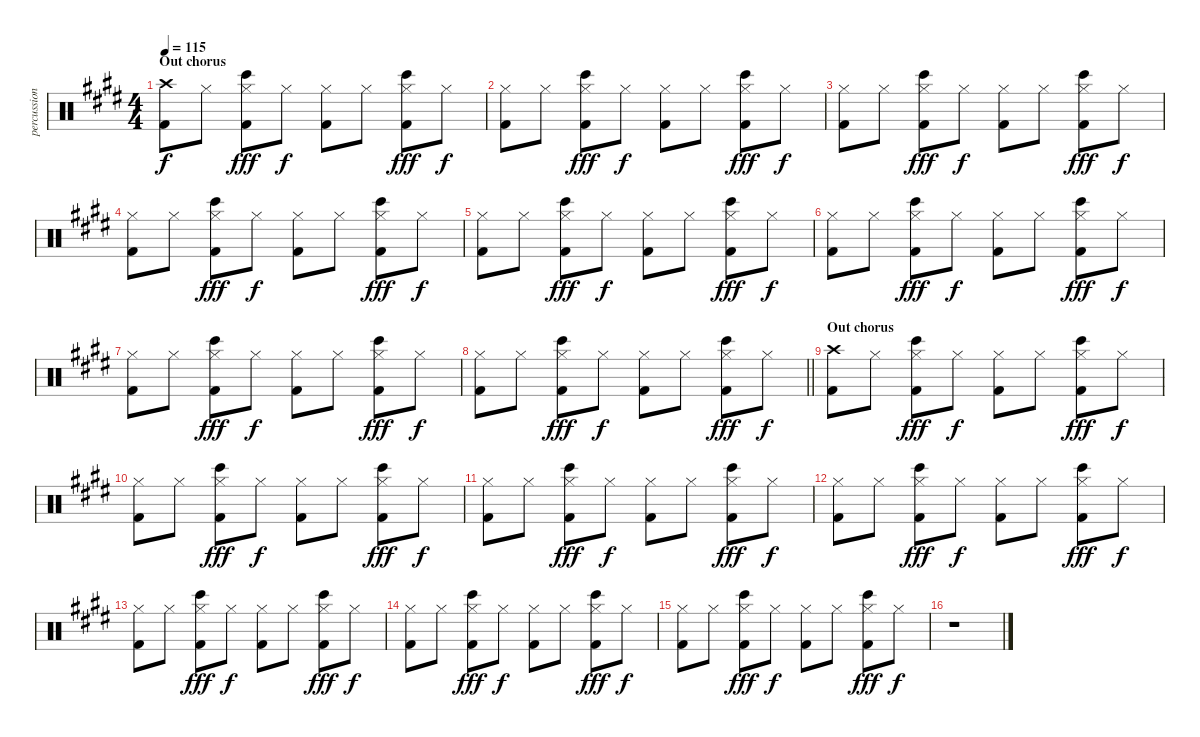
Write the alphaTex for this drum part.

\track ("percussion" "percussion") {instrument percussion}
\staff {score}
\articulation defaults
\ts (4 4)
\section ("" "Out chorus")
\tempo 115
\clef neutral
\ks c#minor
("Crash high (hit)" "Kick (hit) 2").8{dy f} "Hi-Hat (closed)".8 ("Bongo High (hit)" "Hi-Hat (closed)" "Kick (hit) 2").8{dy fff} "Hi-Hat (closed)".8{dy f} ("Hi-Hat (closed)" "Kick (hit) 2").8 "Hi-Hat (closed)".8 ("Bongo High (hit)" "Hi-Hat (closed)" "Kick (hit) 2").8{dy fff} "Hi-Hat (closed)".8{dy f} |
("Hi-Hat (closed)" "Kick (hit) 2").8 "Hi-Hat (closed)".8 ("Bongo High (hit)" "Hi-Hat (closed)" "Kick (hit) 2").8{dy fff} "Hi-Hat (closed)".8{dy f} ("Hi-Hat (closed)" "Kick (hit) 2").8 "Hi-Hat (closed)".8 ("Bongo High (hit)" "Hi-Hat (closed)" "Kick (hit) 2").8{dy fff} "Hi-Hat (closed)".8{dy f} |
("Hi-Hat (closed)" "Kick (hit) 2").8 "Hi-Hat (closed)".8 ("Bongo High (hit)" "Hi-Hat (closed)" "Kick (hit) 2").8{dy fff} "Hi-Hat (closed)".8{dy f} ("Hi-Hat (closed)" "Kick (hit) 2").8 "Hi-Hat (closed)".8 ("Bongo High (hit)" "Hi-Hat (closed)" "Kick (hit) 2").8{dy fff} "Hi-Hat (closed)".8{dy f} |
("Hi-Hat (closed)" "Kick (hit) 2").8 "Hi-Hat (closed)".8 ("Bongo High (hit)" "Hi-Hat (closed)" "Kick (hit) 2").8{dy fff} "Hi-Hat (closed)".8{dy f} ("Hi-Hat (closed)" "Kick (hit) 2").8 "Hi-Hat (closed)".8 ("Bongo High (hit)" "Hi-Hat (closed)" "Kick (hit) 2").8{dy fff} "Hi-Hat (closed)".8{dy f} |
("Hi-Hat (closed)" "Kick (hit) 2").8 "Hi-Hat (closed)".8 ("Bongo High (hit)" "Hi-Hat (closed)" "Kick (hit) 2").8{dy fff} "Hi-Hat (closed)".8{dy f} ("Hi-Hat (closed)" "Kick (hit) 2").8 "Hi-Hat (closed)".8 ("Bongo High (hit)" "Hi-Hat (closed)" "Kick (hit) 2").8{dy fff} "Hi-Hat (closed)".8{dy f} |
("Hi-Hat (closed)" "Kick (hit) 2").8 "Hi-Hat (closed)".8 ("Bongo High (hit)" "Hi-Hat (closed)" "Kick (hit) 2").8{dy fff} "Hi-Hat (closed)".8{dy f} ("Hi-Hat (closed)" "Kick (hit) 2").8 "Hi-Hat (closed)".8 ("Bongo High (hit)" "Hi-Hat (closed)" "Kick (hit) 2").8{dy fff} "Hi-Hat (closed)".8{dy f} |
("Hi-Hat (closed)" "Kick (hit) 2").8 "Hi-Hat (closed)".8 ("Bongo High (hit)" "Hi-Hat (closed)" "Kick (hit) 2").8{dy fff} "Hi-Hat (closed)".8{dy f} ("Hi-Hat (closed)" "Kick (hit) 2").8 "Hi-Hat (closed)".8 ("Bongo High (hit)" "Hi-Hat (closed)" "Kick (hit) 2").8{dy fff} "Hi-Hat (closed)".8{dy f} |
\barLineRight lightlight
("Hi-Hat (closed)" "Kick (hit) 2").8 "Hi-Hat (closed)".8 ("Bongo High (hit)" "Hi-Hat (closed)" "Kick (hit) 2").8{dy fff} "Hi-Hat (closed)".8{dy f} ("Hi-Hat (closed)" "Kick (hit) 2").8 "Hi-Hat (closed)".8 ("Bongo High (hit)" "Hi-Hat (closed)" "Kick (hit) 2").8{dy fff} "Hi-Hat (closed)".8{dy f} |
\section ("" "Out chorus")
("Crash high (hit)" "Kick (hit) 2").8 "Hi-Hat (closed)".8 ("Bongo High (hit)" "Hi-Hat (closed)" "Kick (hit) 2").8{dy fff} "Hi-Hat (closed)".8{dy f} ("Hi-Hat (closed)" "Kick (hit) 2").8 "Hi-Hat (closed)".8 ("Bongo High (hit)" "Hi-Hat (closed)" "Kick (hit) 2").8{dy fff} "Hi-Hat (closed)".8{dy f} |
("Hi-Hat (closed)" "Kick (hit) 2").8 "Hi-Hat (closed)".8 ("Bongo High (hit)" "Hi-Hat (closed)" "Kick (hit) 2").8{dy fff} "Hi-Hat (closed)".8{dy f} ("Hi-Hat (closed)" "Kick (hit) 2").8 "Hi-Hat (closed)".8 ("Bongo High (hit)" "Hi-Hat (closed)" "Kick (hit) 2").8{dy fff} "Hi-Hat (closed)".8{dy f} |
("Hi-Hat (closed)" "Kick (hit) 2").8 "Hi-Hat (closed)".8 ("Bongo High (hit)" "Hi-Hat (closed)" "Kick (hit) 2").8{dy fff} "Hi-Hat (closed)".8{dy f} ("Hi-Hat (closed)" "Kick (hit) 2").8 "Hi-Hat (closed)".8 ("Bongo High (hit)" "Hi-Hat (closed)" "Kick (hit) 2").8{dy fff} "Hi-Hat (closed)".8{dy f} |
("Hi-Hat (closed)" "Kick (hit) 2").8 "Hi-Hat (closed)".8 ("Bongo High (hit)" "Hi-Hat (closed)" "Kick (hit) 2").8{dy fff} "Hi-Hat (closed)".8{dy f} ("Hi-Hat (closed)" "Kick (hit) 2").8 "Hi-Hat (closed)".8 ("Bongo High (hit)" "Hi-Hat (closed)" "Kick (hit) 2").8{dy fff} "Hi-Hat (closed)".8{dy f} |
("Hi-Hat (closed)" "Kick (hit) 2").8 "Hi-Hat (closed)".8 ("Bongo High (hit)" "Hi-Hat (closed)" "Kick (hit) 2").8{dy fff} "Hi-Hat (closed)".8{dy f} ("Hi-Hat (closed)" "Kick (hit) 2").8 "Hi-Hat (closed)".8 ("Bongo High (hit)" "Hi-Hat (closed)" "Kick (hit) 2").8{dy fff} "Hi-Hat (closed)".8{dy f} |
("Hi-Hat (closed)" "Kick (hit) 2").8 "Hi-Hat (closed)".8 ("Bongo High (hit)" "Hi-Hat (closed)" "Kick (hit) 2").8{dy fff} "Hi-Hat (closed)".8{dy f} ("Hi-Hat (closed)" "Kick (hit) 2").8 "Hi-Hat (closed)".8 ("Bongo High (hit)" "Hi-Hat (closed)" "Kick (hit) 2").8{dy fff} "Hi-Hat (closed)".8{dy f} |
("Hi-Hat (closed)" "Kick (hit) 2").8 "Hi-Hat (closed)".8 ("Bongo High (hit)" "Hi-Hat (closed)" "Kick (hit) 2").8{dy fff} "Hi-Hat (closed)".8{dy f} ("Hi-Hat (closed)" "Kick (hit) 2").8 "Hi-Hat (closed)".8 ("Bongo High (hit)" "Hi-Hat (closed)" "Kick (hit) 2").8{dy fff} "Hi-Hat (closed)".8{dy f} |
r.1
